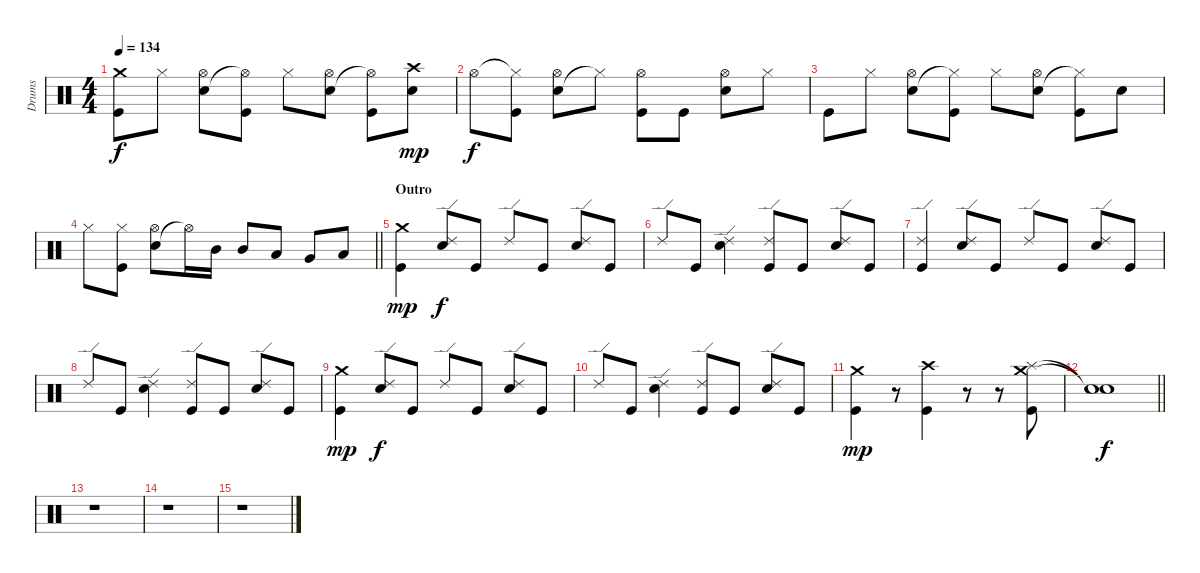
\track ("Drums" "Drums") {instrument percussion}
\staff {score}
\articulation defaults
\ts (4 4)
\tempo 134
\clef neutral
\ks c
("Crash medium (hit)" "Kick (hit)").8{dy f} "Hi-Hat (closed)".8 ("Snare (hit) 2" "Hi-Hat (open)").8 ("Hi-Hat (open)"{t} "Kick (hit)").8 "Hi-Hat (closed)".8 ("Snare (hit) 2" "Hi-Hat (open)").8 ("Hi-Hat (open)"{t} "Kick (hit)").8 ("Crash high (hit)" "Snare (hit) 2").8{dy mp} |
"Hi-Hat (open)".8{dy f} ("Hi-Hat (closed)"{t} "Kick (hit)").8 ("Snare (hit) 2" "Hi-Hat (open)").8 "Hi-Hat (closed)"{t}.8 ("Hi-Hat (open)" "Kick (hit)").8 "Kick (hit)".8 ("Snare (hit) 2" "Hi-Hat (open)").8 "Hi-Hat (closed)".8 |
"Kick (hit)".8 "Hi-Hat (closed)".8 ("Snare (hit) 2" "Hi-Hat (open)").8 ("Hi-Hat (closed)"{t} "Kick (hit)").8 "Hi-Hat (closed)".8 ("Snare (hit) 2" "Hi-Hat (open)").8 ("Hi-Hat (closed)"{t} "Kick (hit)").8 "Snare (hit) 2".8 |
\barLineRight lightlight "Hi-Hat (closed)".8
("Hi-Hat (closed)" "Kick (hit)").8 ("Snare (hit) 2" "Hi-Hat (open)").8 "Hi-Hat (open)"{t}.16 "Mid Tom (hit)".16 "Mid Tom (hit)".8 "Low Tom (hit)".8 "Very Low Tom (hit)".8 "Low Floor Tom (hit)".8 |
\section ("" "Outro")
("Crash medium (hit)" "Kick (hit)").4{dy mp} ("Ride (edge) 2" "Snare (hit) 2").8{dy f} "Kick (hit)".8 "Ride (edge) 2".8 "Kick (hit)".8 ("Ride (edge) 2" "Snare (hit) 2").8 "Kick (hit)".8 |
"Ride (edge) 2".8 "Kick (hit)".8 ("Ride (edge) 2" "Snare (hit) 2").4 ("Ride (edge) 2" "Kick (hit)").8 "Kick (hit)".8 ("Ride (edge) 2" "Snare (hit) 2").8 "Kick (hit)".8 |
("Ride (edge) 2" "Kick (hit)").4 ("Ride (edge) 2" "Snare (hit) 2").8 "Kick (hit)".8 "Ride (edge) 2".8 "Kick (hit)".8 ("Ride (edge) 2" "Snare (hit) 2").8 "Kick (hit)".8 |
"Ride (edge) 2".8 "Kick (hit)".8 ("Ride (edge) 2" "Snare (hit) 2").4 ("Ride (edge) 2" "Kick (hit)").8 "Kick (hit)".8 ("Ride (edge) 2" "Snare (hit) 2").8 "Kick (hit)".8 |
("Crash medium (hit)" "Kick (hit)").4{dy mp} ("Ride (edge) 2" "Snare (hit) 2").8{dy f} "Kick (hit)".8 "Ride (edge) 2".8 "Kick (hit)".8 ("Ride (edge) 2" "Snare (hit) 2").8 "Kick (hit)".8 |
"Ride (edge) 2".8 "Kick (hit)".8 ("Ride (edge) 2" "Snare (hit) 2").4 ("Ride (edge) 2" "Kick (hit)").8 "Kick (hit)".8 ("Ride (edge) 2" "Snare (hit) 2").8 "Kick (hit)".8 |
("Crash medium (hit)" "Kick (hit)").4{dy mp} r.8 ("Crash high (hit)" "Kick (hit)").4 r.8 r.8 ("Splash (hit)" "Crash medium (hit)" "Kick (hit)").8 |
\barLineRight lightlight
("Snare (hit)"{t} "Snare (hit)"{t}).1{dy f} |
r.1 |
r.1 |
r.1
